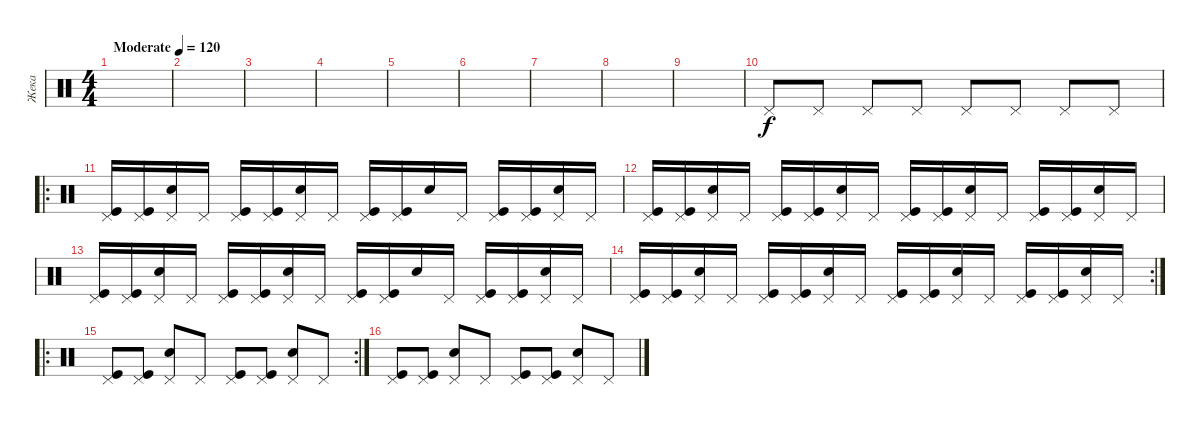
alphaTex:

\track ("Жека" "Жека") {solo instrument percussion}
\staff {score}
\articulation defaults
\ts (4 4)
\tempo (120 "Moderate")
\clef neutral
\ks c
|
|
|
|
|
|
|
|
|
"Pedal Hi-Hat (hit)".8 "Pedal Hi-Hat (hit)".8 "Pedal Hi-Hat (hit)".8 "Pedal Hi-Hat (hit)".8 "Pedal Hi-Hat (hit)".8 "Pedal Hi-Hat (hit)".8 "Pedal Hi-Hat (hit)".8 "Pedal Hi-Hat (hit)".8 |
\ro
("Kick (hit)" "Pedal Hi-Hat (hit)").16 ("Kick (hit)" "Pedal Hi-Hat (hit)").16 ("Pedal Hi-Hat (hit)" "Snare (hit) 2").16 "Pedal Hi-Hat (hit)".16 ("Kick (hit)" "Pedal Hi-Hat (hit)").16 ("Kick (hit)" "Pedal Hi-Hat (hit)").16 ("Pedal Hi-Hat (hit)" "Snare (hit) 2").16 "Pedal Hi-Hat (hit)".16 ("Kick (hit)" "Pedal Hi-Hat (hit)").16 ("Kick (hit)" "Pedal Hi-Hat (hit)").16 "Snare (hit) 2".16 "Pedal Hi-Hat (hit)".16 ("Kick (hit)" "Pedal Hi-Hat (hit)").16 ("Kick (hit)" "Pedal Hi-Hat (hit)").16 ("Pedal Hi-Hat (hit)" "Snare (hit) 2").16 "Pedal Hi-Hat (hit)".16 |
("Kick (hit)" "Pedal Hi-Hat (hit)").16 ("Kick (hit)" "Pedal Hi-Hat (hit)").16 ("Pedal Hi-Hat (hit)" "Snare (hit) 2").16 "Pedal Hi-Hat (hit)".16 ("Kick (hit)" "Pedal Hi-Hat (hit)").16 ("Kick (hit)" "Pedal Hi-Hat (hit)").16 ("Pedal Hi-Hat (hit)" "Snare (hit) 2").16 "Pedal Hi-Hat (hit)".16 ("Kick (hit)" "Pedal Hi-Hat (hit)").16 ("Kick (hit)" "Pedal Hi-Hat (hit)").16 ("Pedal Hi-Hat (hit)" "Snare (hit) 2").16 "Pedal Hi-Hat (hit)".16 ("Kick (hit)" "Pedal Hi-Hat (hit)").16 ("Kick (hit)" "Pedal Hi-Hat (hit)").16 ("Pedal Hi-Hat (hit)" "Snare (hit) 2").16 "Pedal Hi-Hat (hit)".16 |
("Kick (hit)" "Pedal Hi-Hat (hit)").16 ("Kick (hit)" "Pedal Hi-Hat (hit)").16 ("Pedal Hi-Hat (hit)" "Snare (hit) 2").16 "Pedal Hi-Hat (hit)".16 ("Kick (hit)" "Pedal Hi-Hat (hit)").16 ("Kick (hit)" "Pedal Hi-Hat (hit)").16 ("Pedal Hi-Hat (hit)" "Snare (hit) 2").16 "Pedal Hi-Hat (hit)".16 ("Kick (hit)" "Pedal Hi-Hat (hit)").16 ("Kick (hit)" "Pedal Hi-Hat (hit)").16 "Snare (hit) 2".16 "Pedal Hi-Hat (hit)".16 ("Kick (hit)" "Pedal Hi-Hat (hit)").16 ("Kick (hit)" "Pedal Hi-Hat (hit)").16 ("Pedal Hi-Hat (hit)" "Snare (hit) 2").16 "Pedal Hi-Hat (hit)".16 |
\rc 2
("Kick (hit)" "Pedal Hi-Hat (hit)").16 ("Kick (hit)" "Pedal Hi-Hat (hit)").16 ("Pedal Hi-Hat (hit)" "Snare (hit) 2").16 "Pedal Hi-Hat (hit)".16 ("Kick (hit)" "Pedal Hi-Hat (hit)").16 ("Kick (hit)" "Pedal Hi-Hat (hit)").16 ("Pedal Hi-Hat (hit)" "Snare (hit) 2").16 "Pedal Hi-Hat (hit)".16 ("Kick (hit)" "Pedal Hi-Hat (hit)").16 ("Kick (hit)" "Pedal Hi-Hat (hit)").16 ("Pedal Hi-Hat (hit)" "Snare (hit) 2").16 "Pedal Hi-Hat (hit)".16 ("Kick (hit)" "Pedal Hi-Hat (hit)").16 ("Kick (hit)" "Pedal Hi-Hat (hit)").16 ("Pedal Hi-Hat (hit)" "Snare (hit) 2").16 "Pedal Hi-Hat (hit)".16 |
\ro
\rc 2
("Kick (hit)" "Pedal Hi-Hat (hit)").8 ("Kick (hit)" "Pedal Hi-Hat (hit)").8 ("Pedal Hi-Hat (hit)" "Snare (hit) 2").8 "Pedal Hi-Hat (hit)".8 ("Kick (hit)" "Pedal Hi-Hat (hit)").8 ("Kick (hit)" "Pedal Hi-Hat (hit)").8 ("Pedal Hi-Hat (hit)" "Snare (hit) 2").8 "Pedal Hi-Hat (hit)".8 |
("Kick (hit)" "Pedal Hi-Hat (hit)").8 ("Kick (hit)" "Pedal Hi-Hat (hit)").8 ("Pedal Hi-Hat (hit)" "Snare (hit) 2").8 "Pedal Hi-Hat (hit)".8 ("Kick (hit)" "Pedal Hi-Hat (hit)").8 ("Kick (hit)" "Pedal Hi-Hat (hit)").8 ("Pedal Hi-Hat (hit)" "Snare (hit) 2").8 "Pedal Hi-Hat (hit)".8
